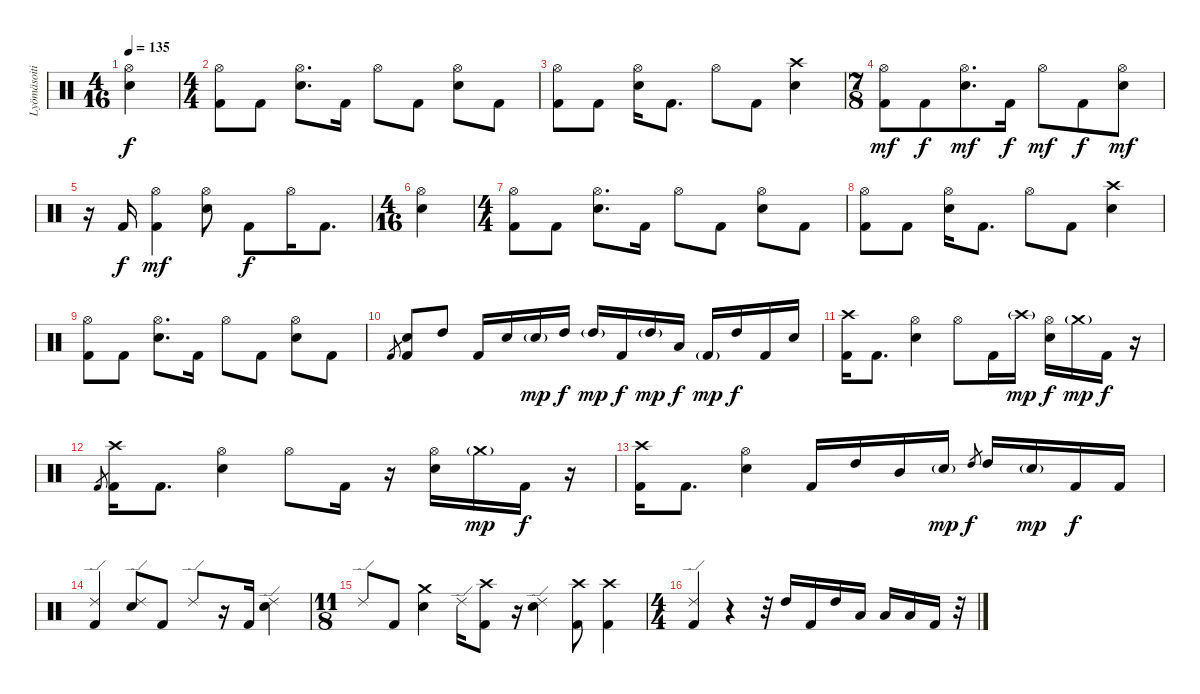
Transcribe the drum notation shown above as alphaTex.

\track ("Lyömäsoitin" "Lyömäsoiti") {instrument percussion}
\staff {score}
\articulation defaults
\ts (4 16)
\tempo 135
\clef neutral
\ks c
("Hi-Hat (open)" "Electric Snare (hit)").4{dy f} |
\ts (4 4)
("Hi-Hat (open)" "Kick (hit) 2").8 "Kick (hit) 2".8 ("Hi-Hat (open)" "Electric Snare (hit)").8{d} "Kick (hit) 2".16 "Hi-Hat (open)".8 "Kick (hit) 2".8 ("Hi-Hat (open)" "Electric Snare (hit)").8 "Kick (hit) 2".8 |
("Hi-Hat (open)" "Kick (hit) 2").8 "Kick (hit) 2".8 ("Hi-Hat (open)" "Electric Snare (hit)").16 "Kick (hit) 2".8{d} "Hi-Hat (open)".8 "Kick (hit) 2".8 ("Crash high (hit)" "Electric Snare (hit)").4 |
\ts (7 8)
("Hi-Hat (open)" "Kick (hit) 2").8{dy mf} "Kick (hit) 2".8{dy f} ("Hi-Hat (open)" "Electric Snare (hit)").8{d dy mf} "Kick (hit) 2".16{dy f} "Hi-Hat (open)".8{dy mf} "Kick (hit) 2".8{dy f} ("Hi-Hat (open)" "Electric Snare (hit)").8{dy mf} |
r.16 "Kick (hit) 2".16{dy f} ("Hi-Hat (open)" "Kick (hit) 2").4{dy mf} ("Hi-Hat (open)" "Electric Snare (hit)").8 "Kick (hit) 2".8{dy f} "Hi-Hat (open)".16 "Kick (hit) 2".8{d} |
\ts (4 16)
("Hi-Hat (open)" "Electric Snare (hit)").4 |
\ts (4 4)
("Hi-Hat (open)" "Kick (hit) 2").8 "Kick (hit) 2".8 ("Hi-Hat (open)" "Electric Snare (hit)").8{d} "Kick (hit) 2".16 "Hi-Hat (open)".8 "Kick (hit) 2".8 ("Hi-Hat (open)" "Electric Snare (hit)").8 "Kick (hit) 2".8 |
("Hi-Hat (open)" "Kick (hit) 2").8 "Kick (hit) 2".8 ("Hi-Hat (open)" "Electric Snare (hit)").16 "Kick (hit) 2".8{d} "Hi-Hat (open)".8 "Kick (hit) 2".8 ("Crash high (hit)" "Electric Snare (hit)").4 |
("Hi-Hat (open)" "Kick (hit) 2").8 "Kick (hit) 2".8 ("Hi-Hat (open)" "Electric Snare (hit)").8{d} "Kick (hit) 2".16 "Hi-Hat (open)".8 "Kick (hit) 2".8 ("Hi-Hat (open)" "Electric Snare (hit)").8 "Kick (hit) 2".8 |
"Kick (hit) 2".8{gr} ("Electric Snare (hit)" "Kick (hit) 2").8 "High Tom (hit)".8 "Kick (hit) 2".16 "Electric Snare (hit)".16 "Electric Snare (hit)"{g}.16{dy mp} "High Tom (hit)".16{dy f} "High Tom (hit)"{g}.16{dy mp} "Kick (hit) 2".16{dy f} "High Tom (hit)"{g}.16{dy mp} "Low Tom (hit)".16{dy f} "Kick (hit) 2"{g}.16{dy mp} "High Tom (hit)".16{dy f} "Kick (hit) 2".16 "Electric Snare (hit)".16 |
("Crash high (hit)" "Kick (hit) 2").16 "Kick (hit) 2".8{d} ("Hi-Hat (open)" "Electric Snare (hit)").4 "Hi-Hat (open)".8 "Kick (hit) 2".16 "Crash high (hit)"{g}.16{dy mp} ("Hi-Hat (open)" "Electric Snare (hit)").16{dy f} "Crash medium (hit)"{g}.16{dy mp} "Kick (hit) 2".16{dy f} r.16 |
"Kick (hit) 2".8{gr} ("Crash high (hit)" "Kick (hit) 2").16 "Kick (hit) 2".8{d} ("Hi-Hat (open)" "Electric Snare (hit)").4 "Hi-Hat (open)".8 "Kick (hit) 2".16 r.16 ("Hi-Hat (open)" "Electric Snare (hit)").16 "Crash medium (hit)"{g}.16{dy mp} "Kick (hit) 2".16{dy f} r.16 |
("Crash high (hit)" "Kick (hit) 2").16 "Kick (hit) 2".8{d} ("Hi-Hat (open)" "Electric Snare (hit)").4 "Kick (hit) 2".16 "High Tom (hit)".16 "Mid Tom (hit)".16 "Electric Snare (hit)"{g}.16{dy mp} "High Tom (hit)".8{gr dy f} "High Tom (hit)".16 "Electric Snare (hit)"{g}.16{dy mp} "Kick (hit) 2".16{dy f} "Kick (hit) 2".16 |
("Ride (edge) 2" "Kick (hit) 2").4 ("Ride (edge) 2" "Electric Snare (hit)").8 "Kick (hit) 2".8 "Ride (edge) 2".8 r.16 "Kick (hit) 2".16 ("Ride (edge) 2" "Electric Snare (hit)").4 |
\ts (11 8)
"Ride (edge) 2".8 "Kick (hit) 2".8 ("Crash medium (hit)" "Electric Snare (hit)").4 "Ride (edge) 2".16 ("Crash high (hit)" "Kick (hit) 2").8 r.16 ("Electric Snare (hit)" "Ride (edge) 2").4 ("Crash high (hit)" "Kick (hit) 2").8 ("Crash high (hit)" "Kick (hit) 2").4 |
\ts (4 4)
("Ride (edge) 2" "Kick (hit) 2").4 r.4 r.32 "High Tom (hit)".16 "Kick (hit) 2".16 "High Tom (hit)".16 "Low Tom (hit)".16 "Low Tom (hit)".16 "Low Floor Tom (hit)".16 "Kick (hit) 2".16 r.32
